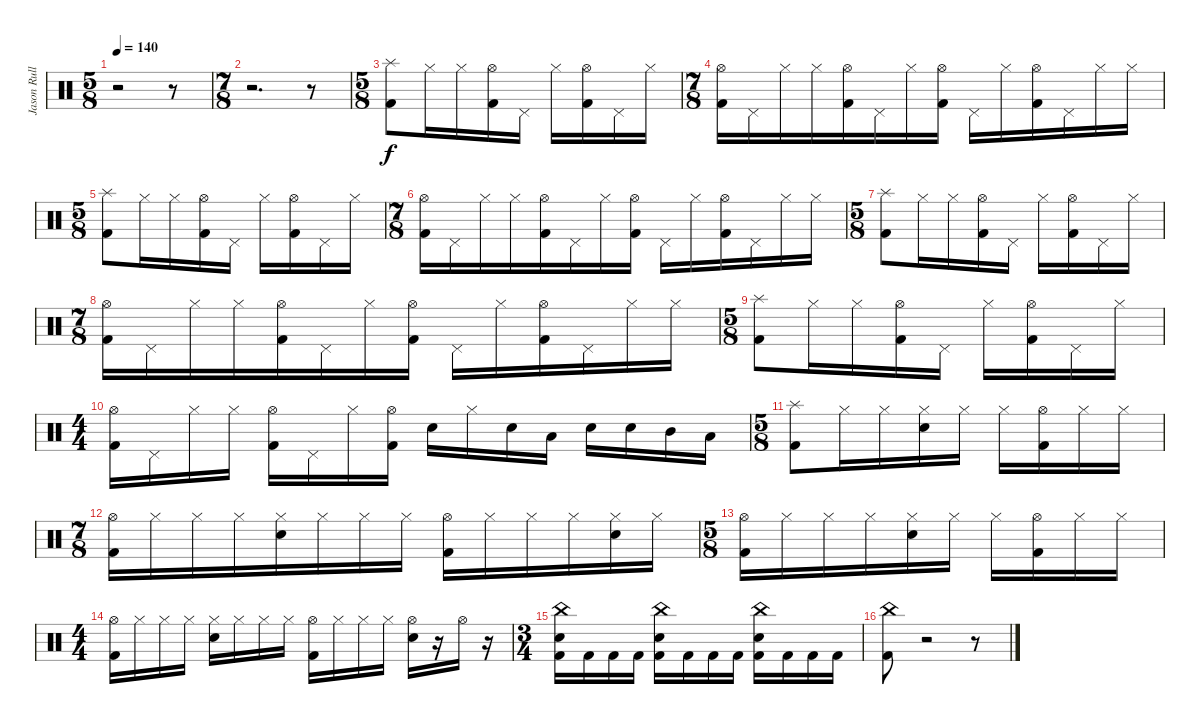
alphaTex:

\track ("Jason Rullo" "Jason Rull") {instrument percussion}
\staff {score}
\articulation defaults
\ts (5 8)
\tempo 140
\clef neutral
\ks c
r.2{dy f} r.8 |
\ts (7 8)
r.2{d} r.8 |
\ts (5 8)
("Splash (hit)" "Kick (hit) 2").8 "Hi-Hat (closed)".16 "Hi-Hat (closed)".16 ("Hi-Hat (open)" "Kick (hit) 2").16 "Pedal Hi-Hat (hit)".16 "Hi-Hat (closed)".16 ("Hi-Hat (open)" "Kick (hit) 2").16 "Pedal Hi-Hat (hit)".16 "Hi-Hat (closed)".16 |
\ts (7 8)
("Hi-Hat (open)" "Kick (hit) 2").16 "Pedal Hi-Hat (hit)".16 "Hi-Hat (closed)".16 "Hi-Hat (closed)".16 ("Hi-Hat (open)" "Kick (hit) 2").16 "Pedal Hi-Hat (hit)".16 "Hi-Hat (closed)".16 ("Hi-Hat (open)" "Kick (hit) 2").16 "Pedal Hi-Hat (hit)".16 "Hi-Hat (closed)".16 ("Hi-Hat (open)" "Kick (hit) 2").16 "Pedal Hi-Hat (hit)".16 "Hi-Hat (closed)".16 "Hi-Hat (closed)".16 |
\ts (5 8)
("Splash (hit)" "Kick (hit) 2").8 "Hi-Hat (closed)".16 "Hi-Hat (closed)".16 ("Hi-Hat (open)" "Kick (hit) 2").16 "Pedal Hi-Hat (hit)".16 "Hi-Hat (closed)".16 ("Hi-Hat (open)" "Kick (hit) 2").16 "Pedal Hi-Hat (hit)".16 "Hi-Hat (closed)".16 |
\ts (7 8)
("Hi-Hat (open)" "Kick (hit) 2").16 "Pedal Hi-Hat (hit)".16 "Hi-Hat (closed)".16 "Hi-Hat (closed)".16 ("Hi-Hat (open)" "Kick (hit) 2").16 "Pedal Hi-Hat (hit)".16 "Hi-Hat (closed)".16 ("Hi-Hat (open)" "Kick (hit) 2").16 "Pedal Hi-Hat (hit)".16 "Hi-Hat (closed)".16 ("Hi-Hat (open)" "Kick (hit) 2").16 "Pedal Hi-Hat (hit)".16 "Hi-Hat (closed)".16 "Hi-Hat (closed)".16 |
\ts (5 8)
("Splash (hit)" "Kick (hit) 2").8 "Hi-Hat (closed)".16 "Hi-Hat (closed)".16 ("Hi-Hat (open)" "Kick (hit) 2").16 "Pedal Hi-Hat (hit)".16 "Hi-Hat (closed)".16 ("Hi-Hat (open)" "Kick (hit) 2").16 "Pedal Hi-Hat (hit)".16 "Hi-Hat (closed)".16 |
\ts (7 8)
("Hi-Hat (open)" "Kick (hit) 2").16 "Pedal Hi-Hat (hit)".16 "Hi-Hat (closed)".16 "Hi-Hat (closed)".16 ("Hi-Hat (open)" "Kick (hit) 2").16 "Pedal Hi-Hat (hit)".16 "Hi-Hat (closed)".16 ("Hi-Hat (open)" "Kick (hit) 2").16 "Pedal Hi-Hat (hit)".16 "Hi-Hat (closed)".16 ("Hi-Hat (open)" "Kick (hit) 2").16 "Pedal Hi-Hat (hit)".16 "Hi-Hat (closed)".16 "Hi-Hat (closed)".16 |
\ts (5 8)
("Splash (hit)" "Kick (hit) 2").8 "Hi-Hat (closed)".16 "Hi-Hat (closed)".16 ("Hi-Hat (open)" "Kick (hit) 2").16 "Pedal Hi-Hat (hit)".16 "Hi-Hat (closed)".16 ("Hi-Hat (open)" "Kick (hit) 2").16 "Pedal Hi-Hat (hit)".16 "Hi-Hat (closed)".16 |
\ts (4 4)
("Hi-Hat (open)" "Kick (hit) 2").16 "Pedal Hi-Hat (hit)".16 "Hi-Hat (closed)".16 "Hi-Hat (closed)".16 ("Hi-Hat (open)" "Kick (hit) 2").16 "Pedal Hi-Hat (hit)".16 "Hi-Hat (closed)".16 ("Hi-Hat (open)" "Kick (hit) 2").16 "Electric Snare (hit)".16 "Hi-Hat (closed)".16 "Electric Snare (hit)".16 "Low Tom (hit)".16 "Electric Snare (hit)".16 "Electric Snare (hit)".16 "Mid Tom (hit)".16 "Low Tom (hit)".16 |
\ts (5 8)
("Splash (hit)" "Kick (hit) 2").8 "Hi-Hat (closed)".16 "Hi-Hat (closed)".16 ("Hi-Hat (closed)" "Electric Snare (hit)").16 "Hi-Hat (closed)".16 "Hi-Hat (closed)".16 ("Hi-Hat (open)" "Kick (hit) 2").16 "Hi-Hat (closed)".16 "Hi-Hat (closed)".16 |
\ts (7 8)
("Hi-Hat (open)" "Kick (hit) 2").16 "Hi-Hat (closed)".16 "Hi-Hat (closed)".16 "Hi-Hat (closed)".16 ("Hi-Hat (closed)" "Electric Snare (hit)").16 "Hi-Hat (closed)".16 "Hi-Hat (closed)".16 "Hi-Hat (closed)".16 ("Hi-Hat (open)" "Kick (hit) 2").16 "Hi-Hat (closed)".16 "Hi-Hat (closed)".16 "Hi-Hat (closed)".16 ("Hi-Hat (closed)" "Electric Snare (hit)").16 "Hi-Hat (closed)".16 |
\ts (5 8)
("Hi-Hat (open)" "Kick (hit) 2").16 "Hi-Hat (closed)".16 "Hi-Hat (closed)".16 "Hi-Hat (closed)".16 ("Hi-Hat (closed)" "Electric Snare (hit)").16 "Hi-Hat (closed)".16 "Hi-Hat (closed)".16 ("Hi-Hat (open)" "Kick (hit) 2").16 "Hi-Hat (closed)".16 "Hi-Hat (closed)".16 |
\ts (4 4)
("Hi-Hat (open)" "Kick (hit) 2").16 "Hi-Hat (closed)".16 "Hi-Hat (closed)".16 "Hi-Hat (closed)".16 ("Hi-Hat (closed)" "Electric Snare (hit)").16 "Hi-Hat (closed)".16 "Hi-Hat (closed)".16 "Hi-Hat (closed)".16 ("Hi-Hat (open)" "Kick (hit) 2").16 "Hi-Hat (closed)".16 "Hi-Hat (closed)".16 "Hi-Hat (closed)".16 ("Hi-Hat (open)" "Electric Snare (hit)").16 r.16 "Hi-Hat (open)".16 r.16 |
\ts (3 4)
("Kick (hit) 2" "Electric Snare (hit)" "China (hit)").16 "Kick (hit) 2".16 "Kick (hit) 2".16 "Kick (hit) 2".16 ("Kick (hit) 2" "Electric Snare (hit)" "China (hit)").16 "Kick (hit) 2".16 "Kick (hit) 2".16 "Kick (hit) 2".16 ("Kick (hit) 2" "Electric Snare (hit)" "China (hit)").16 "Kick (hit) 2".16 "Kick (hit) 2".16 "Kick (hit) 2".16 |
("Kick (hit) 2" "China (hit)").8 r.2 r.8
